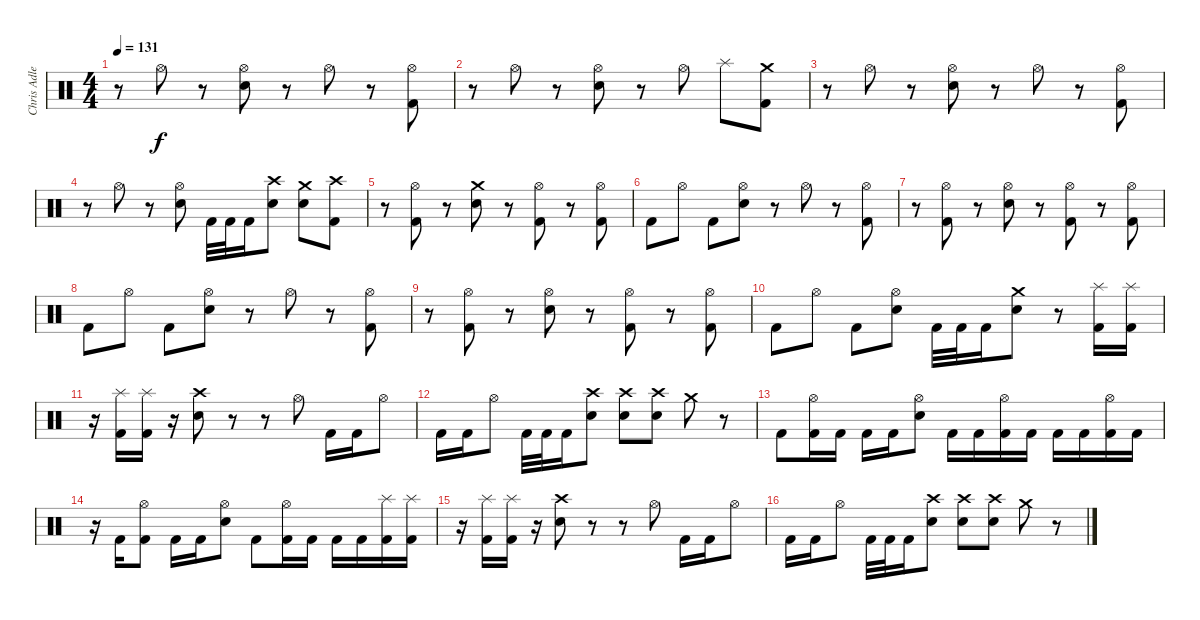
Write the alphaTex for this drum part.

\track ("Chris Adler" "Chris Adle") {instrument percussion}
\staff {score}
\articulation defaults
\ts (4 4)
\tempo 131
\clef neutral
\ks c
r.8{dy f} "Hi-Hat (open)".8 r.8 ("Hi-Hat (open)" "Electric Snare (hit)").8 r.8 "Hi-Hat (open)".8 r.8 ("Hi-Hat (open)" "Kick (hit) 2").8 |
r.8 "Hi-Hat (open)".8 r.8 ("Hi-Hat (open)" "Electric Snare (hit)").8 r.8 "Hi-Hat (open)".8 "Splash (hit)".8 ("Crash medium (hit)" "Kick (hit) 2").8 |
r.8 "Hi-Hat (open)".8 r.8 ("Hi-Hat (open)" "Electric Snare (hit)").8 r.8 "Hi-Hat (open)".8 r.8 ("Hi-Hat (open)" "Kick (hit) 2").8 |
r.8 "Hi-Hat (open)".8 r.8 ("Hi-Hat (open)" "Electric Snare (hit)").8 "Kick (hit) 2".32 "Kick (hit) 2".32 "Kick (hit) 2".16 ("Crash high (hit)" "Electric Snare (hit)").8 ("Crash medium (hit)" "Electric Snare (hit)").8 ("Crash high (hit)" "Kick (hit) 2").8 |
r.8 ("Hi-Hat (open)" "Kick (hit) 2").8 r.8 ("Crash medium (hit)" "Electric Snare (hit)").8 r.8 ("Hi-Hat (open)" "Kick (hit) 2").8 r.8 ("Hi-Hat (open)" "Kick (hit) 2").8 |
"Kick (hit) 2".8 "Hi-Hat (open)".8 "Kick (hit) 2".8 ("Hi-Hat (open)" "Electric Snare (hit)").8 r.8 "Hi-Hat (open)".8 r.8 ("Hi-Hat (open)" "Kick (hit) 2").8 |
r.8 ("Hi-Hat (open)" "Kick (hit) 2").8 r.8 ("Hi-Hat (open)" "Electric Snare (hit)").8 r.8 ("Hi-Hat (open)" "Kick (hit) 2").8 r.8 ("Hi-Hat (open)" "Kick (hit) 2").8 |
"Kick (hit) 2".8 "Hi-Hat (open)".8 "Kick (hit) 2".8 ("Hi-Hat (open)" "Electric Snare (hit)").8 r.8 "Hi-Hat (open)".8 r.8 ("Hi-Hat (open)" "Kick (hit) 2").8 |
r.8 ("Hi-Hat (open)" "Kick (hit) 2").8 r.8 ("Hi-Hat (open)" "Electric Snare (hit)").8 r.8 ("Hi-Hat (open)" "Kick (hit) 2").8 r.8 ("Hi-Hat (open)" "Kick (hit) 2").8 |
"Kick (hit) 2".8 "Hi-Hat (open)".8 "Kick (hit) 2".8 ("Hi-Hat (open)" "Electric Snare (hit)").8 "Kick (hit) 2".32 "Kick (hit) 2".32 "Kick (hit) 2".16 ("Crash medium (hit)" "Electric Snare (hit)").8 r.8 ("Splash (hit)" "Kick (hit) 2").16 ("Splash (hit)" "Kick (hit) 2").16 |
r.16 ("Splash (hit)" "Kick (hit) 2").16 ("Splash (hit)" "Kick (hit) 2").16 r.16 ("Crash high (hit)" "Electric Snare (hit)").8 r.8 r.8 "Hi-Hat (open)".8 "Kick (hit) 2".16 "Kick (hit) 2".16 "Hi-Hat (open)".8 |
"Kick (hit) 2".16 "Kick (hit) 2".16 "Hi-Hat (open)".8 "Kick (hit) 2".32 "Kick (hit) 2".32 "Kick (hit) 2".16 ("Crash high (hit)" "Electric Snare (hit)").8 ("Crash high (hit)" "Electric Snare (hit)").8 ("Crash high (hit)" "Electric Snare (hit)").8 "Crash medium (hit)".8 r.8 |
"Kick (hit) 2".8 ("Hi-Hat (open)" "Kick (hit) 2").16 "Kick (hit) 2".16 "Kick (hit) 2".16 "Kick (hit) 2".16 ("Hi-Hat (open)" "Electric Snare (hit)").8 "Kick (hit) 2".16 "Kick (hit) 2".16 ("Hi-Hat (open)" "Kick (hit) 2").16 "Kick (hit) 2".16 "Kick (hit) 2".16 "Kick (hit) 2".16 ("Hi-Hat (open)" "Kick (hit) 2").16 "Kick (hit) 2".16 |
r.16 "Kick (hit) 2".16 ("Hi-Hat (open)" "Kick (hit) 2").8 "Kick (hit) 2".16 "Kick (hit) 2".16 ("Hi-Hat (open)" "Electric Snare (hit)").8 "Kick (hit) 2".8 ("Hi-Hat (open)" "Kick (hit) 2").16 "Kick (hit) 2".16 "Kick (hit) 2".16 "Kick (hit) 2".16 ("Splash (hit)" "Kick (hit) 2").16 ("Splash (hit)" "Kick (hit) 2").16 |
r.16 ("Splash (hit)" "Kick (hit) 2").16 ("Splash (hit)" "Kick (hit) 2").16 r.16 ("Crash high (hit)" "Electric Snare (hit)").8 r.8 r.8 "Hi-Hat (open)".8 "Kick (hit) 2".16 "Kick (hit) 2".16 "Hi-Hat (open)".8 |
"Kick (hit) 2".16 "Kick (hit) 2".16 "Hi-Hat (open)".8 "Kick (hit) 2".32 "Kick (hit) 2".32 "Kick (hit) 2".16 ("Crash high (hit)" "Electric Snare (hit)").8 ("Crash high (hit)" "Electric Snare (hit)").8 ("Crash high (hit)" "Electric Snare (hit)").8 "Crash medium (hit)".8 r.8
